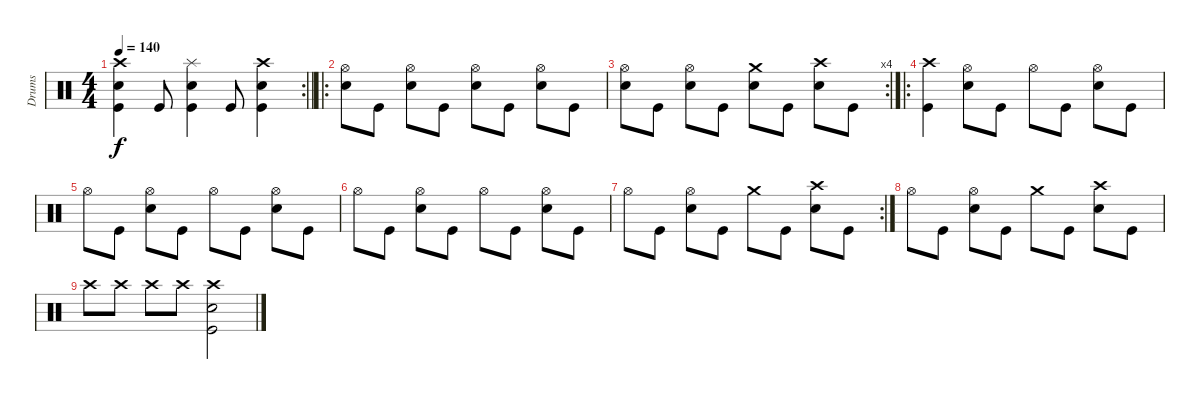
\track ("Drums" "Drums") {instrument percussion}
\staff {score}
\articulation defaults
\rc 2
\ts (4 4)
\tempo 140
\clef neutral
\barLineRight lightlight
\ks c
("Crash high (hit)" "Electric Snare (hit)" "Kick (hit)").4{dy f} "Kick (hit)".8 ("Splash (hit)" "Electric Snare (hit)" "Kick (hit)").4 "Kick (hit)".8 ("Crash high (hit)" "Electric Snare (hit)" "Kick (hit)").4 |
\ro
("Hi-Hat (open)" "Electric Snare (hit)").8 "Kick (hit)".8 ("Hi-Hat (open)" "Electric Snare (hit)").8 "Kick (hit)".8 ("Hi-Hat (open)" "Electric Snare (hit)").8 "Kick (hit)".8 ("Hi-Hat (open)" "Electric Snare (hit)").8 "Kick (hit)".8 |
\rc 4
("Hi-Hat (open)" "Electric Snare (hit)").8 "Kick (hit)".8 ("Hi-Hat (open)" "Electric Snare (hit)").8 "Kick (hit)".8 ("Crash medium (hit)" "Electric Snare (hit)").8 "Kick (hit)".8 ("Crash high (hit)" "Electric Snare (hit)").8 "Kick (hit)".8 |
\ro
("Crash high (hit)" "Kick (hit)").4 ("Hi-Hat (open)" "Electric Snare (hit)").8 "Kick (hit)".8 "Hi-Hat (open)".8 "Kick (hit)".8 ("Hi-Hat (open)" "Electric Snare (hit)").8 "Kick (hit)".8 |
"Hi-Hat (open)".8 "Kick (hit)".8 ("Hi-Hat (open)" "Electric Snare (hit)").8 "Kick (hit)".8 "Hi-Hat (open)".8 "Kick (hit)".8 ("Hi-Hat (open)" "Electric Snare (hit)").8 "Kick (hit)".8 |
"Hi-Hat (open)".8 "Kick (hit)".8 ("Hi-Hat (open)" "Electric Snare (hit)").8 "Kick (hit)".8 "Hi-Hat (open)".8 "Kick (hit)".8 ("Hi-Hat (open)" "Electric Snare (hit)").8 "Kick (hit)".8 |
\rc 2 "Hi-Hat (open)".8 "Kick (hit)".8
("Hi-Hat (open)" "Electric Snare (hit)").8 "Kick (hit)".8 "Crash medium (hit)".8 "Kick (hit)".8 ("Crash high (hit)" "Electric Snare (hit)").8 "Kick (hit)".8 |
"Hi-Hat (open)".8 "Kick (hit)".8 ("Hi-Hat (open)" "Electric Snare (hit)").8 "Kick (hit)".8 "Crash medium (hit)".8 "Kick (hit)".8 ("Crash high (hit)" "Electric Snare (hit)").8 "Kick (hit)".8 |
"Crash high (hit)".8 "Crash high (hit)".8 "Crash high (hit)".8 "Crash high (hit)".8 ("Electric Snare (hit)" "Crash high (hit)" "Kick (hit)").2
